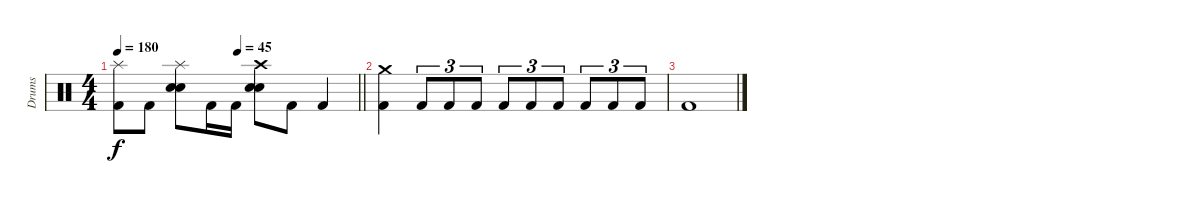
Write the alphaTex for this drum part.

\track ("Drums" "Drums") {instrument percussion}
\staff {score}
\articulation defaults
\ts (4 4)
\tempo 180
\tempo (45 0.5)
\clef neutral
\barLineRight lightlight
\ks c
("Splash (hit)" "Kick (hit) 2").8{dy f} "Kick (hit) 2".8 ("Splash (hit)" "Electric Snare (hit)" "Snare (hit) 2").8 "Kick (hit) 2".16 "Kick (hit) 2".16 ("Crash high (hit)" "Electric Snare (hit)" "Snare (hit) 2").8 "Kick (hit) 2".8 "Kick (hit) 2".4 |
("Crash medium (hit)" "Kick (hit) 2").4 "Kick (hit) 2".8{tu (3 2)} "Kick (hit) 2".8{tu (3 2)} "Kick (hit) 2".8{tu (3 2)} "Kick (hit) 2".8{tu (3 2)} "Kick (hit) 2".8{tu (3 2)} "Kick (hit) 2".8{tu (3 2)} "Kick (hit) 2".8{tu (3 2)} "Kick (hit) 2".8{tu (3 2)} "Kick (hit) 2".8{tu (3 2)} |
"Kick (hit) 2".1
